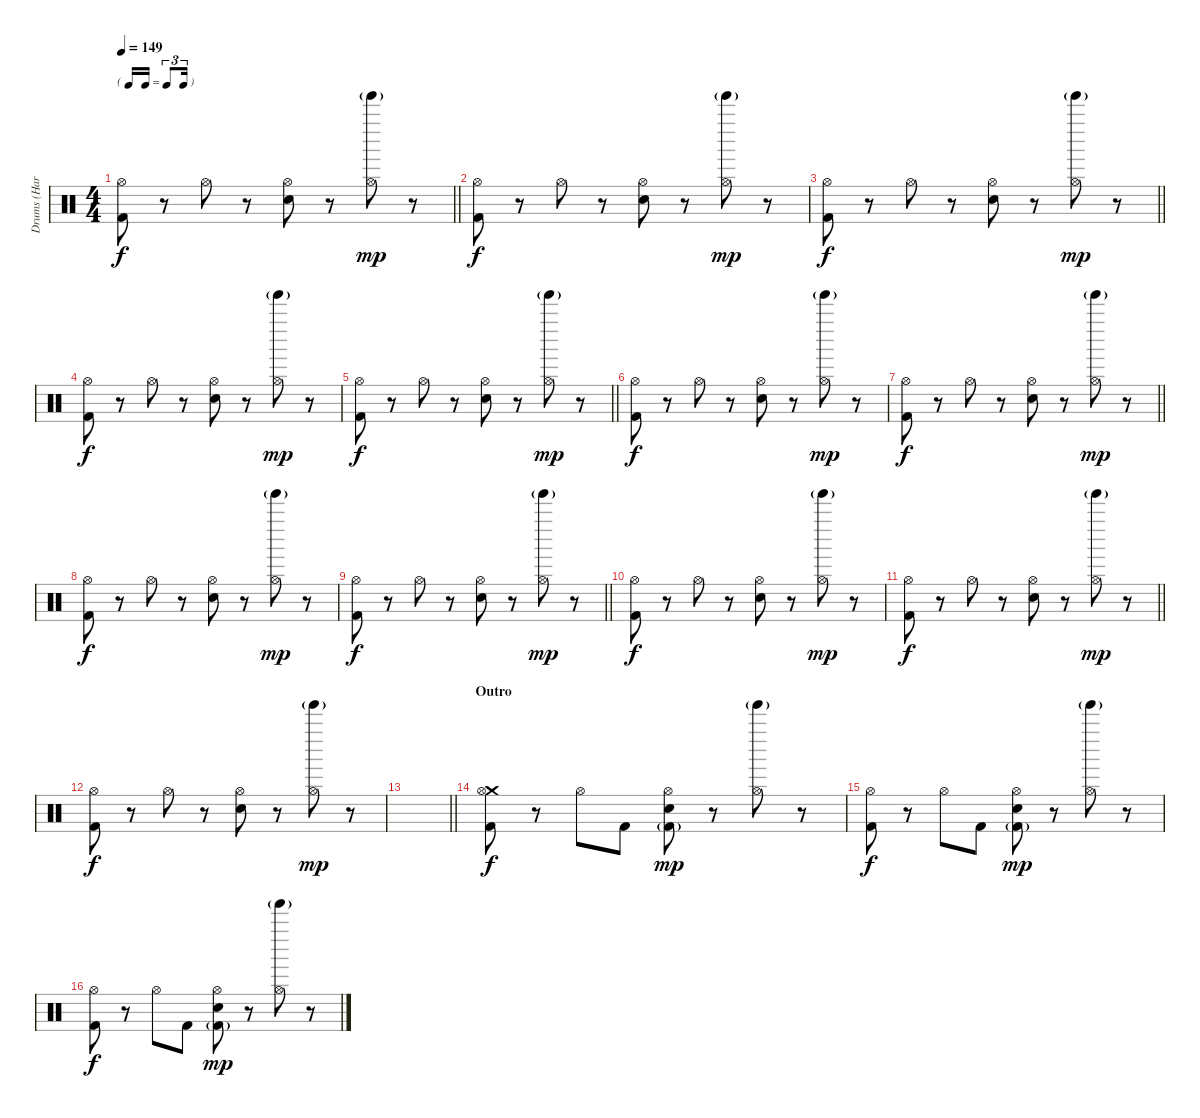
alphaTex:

\track ("Drums (Harry)" "Drums (Har") {instrument percussion}
\staff {score}
\articulation defaults
\ts (4 4)
\tf triplet16th
\tempo 149
\clef neutral
\barLineRight lightlight
\ks c
("Hi-Hat (open)" "Kick (hit) 2").8{dy f} r.8 "Hi-Hat (open)".8 r.8 ("Hi-Hat (open)" "Electric Snare (hit)").8 r.8 ("Tinkle Bell (hit)"{g} "Hi-Hat (open)").8{dy mp} r.8 |
("Hi-Hat (open)" "Kick (hit) 2").8{dy f} r.8 "Hi-Hat (open)".8 r.8 ("Hi-Hat (open)" "Electric Snare (hit)").8 r.8 ("Tinkle Bell (hit)"{g} "Hi-Hat (open)").8{dy mp} r.8 |
\barLineRight lightlight
("Hi-Hat (open)" "Kick (hit) 2").8{dy f} r.8 "Hi-Hat (open)".8 r.8 ("Hi-Hat (open)" "Electric Snare (hit)").8 r.8 ("Tinkle Bell (hit)"{g} "Hi-Hat (open)").8{dy mp} r.8 |
("Hi-Hat (open)" "Kick (hit) 2").8{dy f} r.8 "Hi-Hat (open)".8 r.8 ("Hi-Hat (open)" "Electric Snare (hit)").8 r.8 ("Tinkle Bell (hit)"{g} "Hi-Hat (open)").8{dy mp} r.8 |
\barLineRight lightlight
("Hi-Hat (open)" "Kick (hit) 2").8{dy f} r.8 "Hi-Hat (open)".8 r.8 ("Hi-Hat (open)" "Electric Snare (hit)").8 r.8 ("Tinkle Bell (hit)"{g} "Hi-Hat (open)").8{dy mp} r.8 |
("Hi-Hat (open)" "Kick (hit) 2").8{dy f} r.8 "Hi-Hat (open)".8 r.8 ("Hi-Hat (open)" "Electric Snare (hit)").8 r.8 ("Tinkle Bell (hit)"{g} "Hi-Hat (open)").8{dy mp} r.8 |
\barLineRight lightlight
("Hi-Hat (open)" "Kick (hit) 2").8{dy f} r.8 "Hi-Hat (open)".8 r.8 ("Hi-Hat (open)" "Electric Snare (hit)").8 r.8 ("Tinkle Bell (hit)"{g} "Hi-Hat (open)").8{dy mp} r.8 |
("Hi-Hat (open)" "Kick (hit) 2").8{dy f} r.8 "Hi-Hat (open)".8 r.8 ("Hi-Hat (open)" "Electric Snare (hit)").8 r.8 ("Tinkle Bell (hit)"{g} "Hi-Hat (open)").8{dy mp} r.8 |
\barLineRight lightlight
("Hi-Hat (open)" "Kick (hit) 2").8{dy f} r.8 "Hi-Hat (open)".8 r.8 ("Hi-Hat (open)" "Electric Snare (hit)").8 r.8 ("Tinkle Bell (hit)"{g} "Hi-Hat (open)").8{dy mp} r.8 |
("Hi-Hat (open)" "Kick (hit) 2").8{dy f} r.8 "Hi-Hat (open)".8 r.8 ("Hi-Hat (open)" "Electric Snare (hit)").8 r.8 ("Tinkle Bell (hit)"{g} "Hi-Hat (open)").8{dy mp} r.8 |
\barLineRight lightlight
("Hi-Hat (open)" "Kick (hit) 2").8{dy f} r.8 "Hi-Hat (open)".8 r.8 ("Hi-Hat (open)" "Electric Snare (hit)").8 r.8 ("Tinkle Bell (hit)"{g} "Hi-Hat (open)").8{dy mp} r.8 |
("Hi-Hat (open)" "Kick (hit) 2").8{dy f} r.8 "Hi-Hat (open)".8 r.8 ("Hi-Hat (open)" "Electric Snare (hit)").8 r.8 ("Tinkle Bell (hit)"{g} "Hi-Hat (open)").8{dy mp} r.8 |
\barLineRight lightlight
|
\section ("" "Outro")
("Crash medium (hit)" "Hi-Hat (open)" "Kick (hit) 2").8{dy f} r.8 "Hi-Hat (open)".8 "Kick (hit) 2".8 ("Hi-Hat (open)" "Electric Snare (hit)" "Kick (hit) 2"{g}).8{dy mp} r.8 ("Tinkle Bell (hit)"{g} "Hi-Hat (open)").8 r.8 |
("Hi-Hat (open)" "Kick (hit) 2").8{dy f} r.8 "Hi-Hat (open)".8 "Kick (hit) 2".8 ("Hi-Hat (open)" "Electric Snare (hit)" "Kick (hit) 2"{g}).8{dy mp} r.8 ("Tinkle Bell (hit)"{g} "Hi-Hat (open)").8 r.8 |
("Hi-Hat (open)" "Kick (hit) 2").8{dy f} r.8 "Hi-Hat (open)".8 "Kick (hit) 2".8 ("Hi-Hat (open)" "Electric Snare (hit)" "Kick (hit) 2"{g}).8{dy mp} r.8 ("Tinkle Bell (hit)"{g} "Hi-Hat (open)").8 r.8
